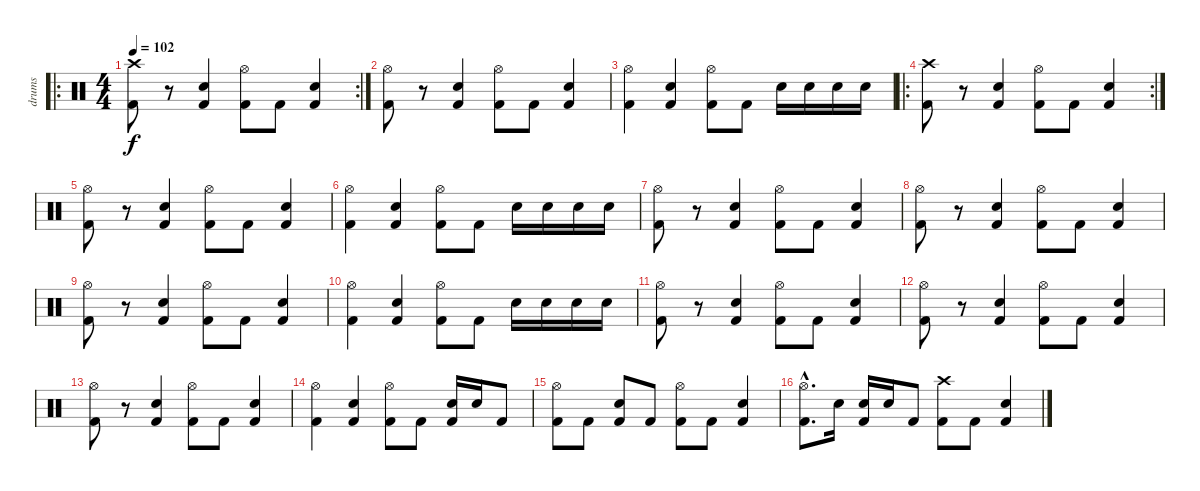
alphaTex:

\track ("drums" "drums") {instrument percussion}
\staff {score}
\articulation defaults
\ro
\rc 2
\ts (4 4)
\tempo 102
\clef neutral
\ks c
("Crash high (hit)" "Kick (hit) 2").8{dy f} r.8 ("Electric Snare (hit)" "Kick (hit) 2").4 ("Hi-Hat (open)" "Kick (hit) 2").8 "Kick (hit) 2".8 ("Electric Snare (hit)" "Kick (hit) 2").4 |
("Hi-Hat (open)" "Kick (hit) 2").8 r.8 ("Electric Snare (hit)" "Kick (hit) 2").4 ("Hi-Hat (open)" "Kick (hit) 2").8 "Kick (hit) 2".8 ("Electric Snare (hit)" "Kick (hit) 2").4 |
("Hi-Hat (open)" "Kick (hit) 2").4 ("Electric Snare (hit)" "Kick (hit) 2").4 ("Hi-Hat (open)" "Kick (hit) 2").8 "Kick (hit) 2".8 "Electric Snare (hit)".16 "Electric Snare (hit)".16 "Snare (hit) 2".16 "Snare (hit) 2".16 |
\ro
\rc 2
("Crash high (hit)" "Kick (hit) 2").8 r.8 ("Electric Snare (hit)" "Kick (hit) 2").4 ("Hi-Hat (open)" "Kick (hit) 2").8 "Kick (hit) 2".8 ("Electric Snare (hit)" "Kick (hit) 2").4 |
("Hi-Hat (open)" "Kick (hit) 2").8 r.8 ("Electric Snare (hit)" "Kick (hit) 2").4 ("Hi-Hat (open)" "Kick (hit) 2").8 "Kick (hit) 2".8 ("Electric Snare (hit)" "Kick (hit) 2").4 |
("Hi-Hat (open)" "Kick (hit) 2").4 ("Electric Snare (hit)" "Kick (hit) 2").4 ("Hi-Hat (open)" "Kick (hit) 2").8 "Kick (hit) 2".8 "Electric Snare (hit)".16 "Electric Snare (hit)".16 "Snare (hit) 2".16 "Snare (hit) 2".16 |
("Hi-Hat (open)" "Kick (hit) 2").8 r.8 ("Electric Snare (hit)" "Kick (hit) 2").4 ("Hi-Hat (open)" "Kick (hit) 2").8 "Kick (hit) 2".8 ("Electric Snare (hit)" "Kick (hit) 2").4 |
("Hi-Hat (open)" "Kick (hit) 2").8 r.8 ("Electric Snare (hit)" "Kick (hit) 2").4 ("Hi-Hat (open)" "Kick (hit) 2").8 "Kick (hit) 2".8 ("Electric Snare (hit)" "Kick (hit) 2").4 |
("Hi-Hat (open)" "Kick (hit) 2").8 r.8 ("Electric Snare (hit)" "Kick (hit) 2").4 ("Hi-Hat (open)" "Kick (hit) 2").8 "Kick (hit) 2".8 ("Electric Snare (hit)" "Kick (hit) 2").4 |
("Hi-Hat (open)" "Kick (hit) 2").4 ("Electric Snare (hit)" "Kick (hit) 2").4 ("Hi-Hat (open)" "Kick (hit) 2").8 "Kick (hit) 2".8 "Electric Snare (hit)".16 "Electric Snare (hit)".16 "Snare (hit) 2".16 "Snare (hit) 2".16 |
("Hi-Hat (open)" "Kick (hit) 2").8 r.8 ("Electric Snare (hit)" "Kick (hit) 2").4 ("Hi-Hat (open)" "Kick (hit) 2").8 "Kick (hit) 2".8 ("Electric Snare (hit)" "Kick (hit) 2").4 |
("Hi-Hat (open)" "Kick (hit) 2").8 r.8 ("Electric Snare (hit)" "Kick (hit) 2").4 ("Hi-Hat (open)" "Kick (hit) 2").8 "Kick (hit) 2".8 ("Electric Snare (hit)" "Kick (hit) 2").4 |
("Hi-Hat (open)" "Kick (hit) 2").8 r.8 ("Electric Snare (hit)" "Kick (hit) 2").4 ("Hi-Hat (open)" "Kick (hit) 2").8 "Kick (hit) 2".8 ("Electric Snare (hit)" "Kick (hit) 2").4 |
("Hi-Hat (open)" "Kick (hit) 2").4 ("Electric Snare (hit)" "Kick (hit) 2").4 ("Hi-Hat (open)" "Kick (hit) 2").8 "Kick (hit) 2".8 ("Electric Snare (hit)" "Kick (hit) 2").16 "Electric Snare (hit)".16 "Kick (hit) 2".8 |
("Hi-Hat (open)" "Kick (hit) 2").8 "Kick (hit) 2".8 ("Electric Snare (hit)" "Kick (hit) 2").8 "Kick (hit) 2".8 ("Hi-Hat (open)" "Kick (hit) 2").8 "Kick (hit) 2".8 ("Electric Snare (hit)" "Kick (hit) 2").4 |
("Hi-Hat (open)"{hac} "Kick (hit) 2"{hac}).8{d} "Electric Snare (hit)".16 ("Electric Snare (hit)" "Kick (hit) 2").16 "Electric Snare (hit)".16 "Kick (hit) 2".8 ("Crash high (hit)" "Kick (hit) 2").8 "Kick (hit) 2".8 ("Electric Snare (hit)" "Kick (hit) 2").4
